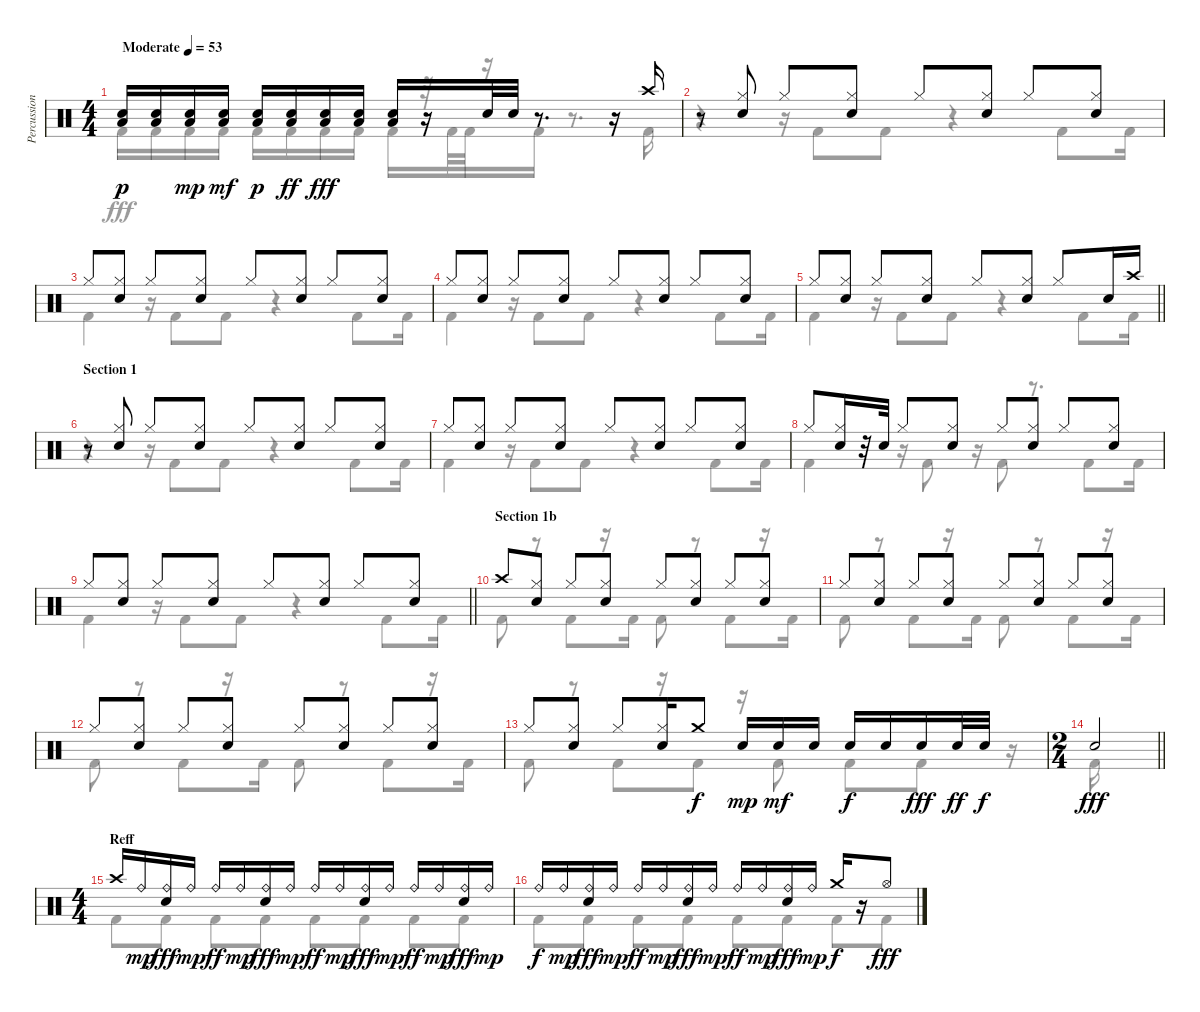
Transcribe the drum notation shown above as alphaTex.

\track ("Percussion" "Percussion") {instrument percussion}
\staff {score}
\articulation defaults
\voice
\ts (4 4)
\tempo (53 "Moderate")
\clef neutral
\ks c
("Low Floor Tom (hit)" "Electric Snare (hit)").16{bd 480 dy p} ("Low Floor Tom (hit)" "Electric Snare (hit)").16{bd 480} ("Low Floor Tom (hit)" "Electric Snare (hit)").16{bd 480 dy mp} ("Low Floor Tom (hit)" "Electric Snare (hit)").16{bd 480 dy mf} ("Low Floor Tom (hit)" "Electric Snare (hit)").16{bd 480 dy p} ("Low Floor Tom (hit)" "Electric Snare (hit)").16{bd 480 dy ff} ("Low Floor Tom (hit)" "Electric Snare (hit)").16{bd 480 dy fff} ("Low Floor Tom (hit)" "Electric Snare (hit)").16{bd 480} ("Low Floor Tom (hit)" "Electric Snare (hit)").16{bd 480} r.16 "Electric Snare (hit)".32 "Electric Snare (hit)".32 r.8{d} r.16 "Crash high (hit)".16 |
r.8 ("Hi-Hat (closed)" "Electric Snare (hit)").8 "Hi-Hat (closed)".8 ("Hi-Hat (closed)" "Electric Snare (hit)").8 "Hi-Hat (closed)".8 ("Hi-Hat (closed)" "Electric Snare (hit)").8 "Hi-Hat (closed)".8 ("Hi-Hat (closed)" "Electric Snare (hit)").8 |
"Hi-Hat (closed)".8 ("Hi-Hat (closed)" "Electric Snare (hit)").8 "Hi-Hat (closed)".8 ("Hi-Hat (closed)" "Electric Snare (hit)").8 "Hi-Hat (closed)".8 ("Hi-Hat (closed)" "Electric Snare (hit)").8 "Hi-Hat (closed)".8 ("Hi-Hat (closed)" "Electric Snare (hit)").8 |
"Hi-Hat (closed)".8 ("Hi-Hat (closed)" "Electric Snare (hit)").8 "Hi-Hat (closed)".8 ("Hi-Hat (closed)" "Electric Snare (hit)").8 "Hi-Hat (closed)".8 ("Hi-Hat (closed)" "Electric Snare (hit)").8 "Hi-Hat (closed)".8 ("Hi-Hat (closed)" "Electric Snare (hit)").8 |
\barLineRight lightlight "Hi-Hat (closed)".8
("Hi-Hat (closed)" "Electric Snare (hit)").8 "Hi-Hat (closed)".8 ("Hi-Hat (closed)" "Electric Snare (hit)").8 "Hi-Hat (closed)".8 ("Hi-Hat (closed)" "Electric Snare (hit)").8 "Hi-Hat (closed)".8 "Electric Snare (hit)".16 "Crash high (hit)".16 |
\section ("" "Section 1")
r.8 ("Hi-Hat (closed)" "Electric Snare (hit)").8 "Hi-Hat (closed)".8 ("Hi-Hat (closed)" "Electric Snare (hit)").8 "Hi-Hat (closed)".8 ("Hi-Hat (closed)" "Electric Snare (hit)").8 "Hi-Hat (closed)".8 ("Hi-Hat (closed)" "Electric Snare (hit)").8 |
"Hi-Hat (closed)".8 ("Hi-Hat (closed)" "Electric Snare (hit)").8 "Hi-Hat (closed)".8 ("Hi-Hat (closed)" "Electric Snare (hit)").8 "Hi-Hat (closed)".8 ("Hi-Hat (closed)" "Electric Snare (hit)").8 "Hi-Hat (closed)".8 ("Hi-Hat (closed)" "Electric Snare (hit)").8 |
"Hi-Hat (closed)".8 ("Hi-Hat (closed)" "Electric Snare (hit)").16 r.32 "Electric Snare (hit)".32 "Hi-Hat (closed)".8 ("Hi-Hat (closed)" "Electric Snare (hit)").8 "Hi-Hat (closed)".8 ("Hi-Hat (closed)" "Electric Snare (hit)").8 "Hi-Hat (closed)".8 ("Hi-Hat (closed)" "Electric Snare (hit)").8 |
\barLineRight lightlight "Hi-Hat (closed)".8
("Hi-Hat (closed)" "Electric Snare (hit)").8 "Hi-Hat (closed)".8 ("Hi-Hat (closed)" "Electric Snare (hit)").8 "Hi-Hat (closed)".8 ("Hi-Hat (closed)" "Electric Snare (hit)").8 "Hi-Hat (closed)".8 ("Hi-Hat (closed)" "Electric Snare (hit)").8 |
\section ("" "Section 1b")
"Crash high (hit)".8 ("Hi-Hat (closed)" "Electric Snare (hit)").8 "Hi-Hat (closed)".8 ("Hi-Hat (closed)" "Electric Snare (hit)").8 "Hi-Hat (closed)".8 ("Hi-Hat (closed)" "Electric Snare (hit)").8 "Hi-Hat (closed)".8 ("Hi-Hat (closed)" "Electric Snare (hit)").8 |
"Hi-Hat (closed)".8 ("Hi-Hat (closed)" "Electric Snare (hit)").8 "Hi-Hat (closed)".8 ("Hi-Hat (closed)" "Electric Snare (hit)").8 "Hi-Hat (closed)".8 ("Hi-Hat (closed)" "Electric Snare (hit)").8 "Hi-Hat (closed)".8 ("Hi-Hat (closed)" "Electric Snare (hit)").8 |
"Hi-Hat (closed)".8 ("Hi-Hat (closed)" "Electric Snare (hit)").8 "Hi-Hat (closed)".8 ("Hi-Hat (closed)" "Electric Snare (hit)").8 "Hi-Hat (closed)".8 ("Hi-Hat (closed)" "Electric Snare (hit)").8 "Hi-Hat (closed)".8 ("Hi-Hat (closed)" "Electric Snare (hit)").8 |
"Hi-Hat (closed)".8 ("Hi-Hat (closed)" "Electric Snare (hit)").8 "Hi-Hat (closed)".8 ("Hi-Hat (closed)" "Electric Snare (hit)").16 "Crash medium (hit)".8{dy f} "Electric Snare (hit)".16{dy mp} "Electric Snare (hit)".16{dy mf} "Electric Snare (hit)".16 "Electric Snare (hit)".16{dy f} "Electric Snare (hit)".16 "Electric Snare (hit)".16{dy fff} "Electric Snare (hit)".32{dy ff} "Electric Snare (hit)".32{dy f} |
\ts (2 4)
\barLineRight lightlight "Electric Snare (hit)".2{dy fff}
|
\ts (4 4)
\section ("" "Reff")
"Crash high (hit)".16 "Ride (bell)".16{dy mp} ("Ride (bell)" "Electric Snare (hit)").16{dy fff} "Ride (bell)".16{dy mp} "Ride (bell)".16{dy ff} "Ride (bell)".16{dy mp} ("Ride (bell)" "Electric Snare (hit)").16{dy fff} "Ride (bell)".16{dy mp} "Ride (bell)".16{dy ff} "Ride (bell)".16{dy mp} ("Ride (bell)" "Electric Snare (hit)").16{dy fff} "Ride (bell)".16{dy mp} "Ride (bell)".16{dy ff} "Ride (bell)".16{dy mp} ("Ride (bell)" "Electric Snare (hit)").16{dy fff} "Ride (bell)".16{dy mp} |
"Ride (bell)".16{dy f} "Ride (bell)".16{dy mp} ("Ride (bell)" "Electric Snare (hit)").16{dy fff} "Ride (bell)".16{dy mp} "Ride (bell)".16{dy ff} "Ride (bell)".16{dy mp} ("Ride (bell)" "Electric Snare (hit)").16{dy fff} "Ride (bell)".16{dy mp} "Ride (bell)".16{dy ff} "Ride (bell)".16{dy mp} ("Ride (bell)" "Electric Snare (hit)").16{dy fff} "Ride (bell)".16{dy mp} "Crash medium (hit)".16{dy f} r.16 "Hi-Hat (open)".8{dy fff}
\voice
\clef neutral
\ottava regular
\simile none
\ks c "Kick (hit) 2".16{dy fff} "Kick (hit) 2".16 "Kick (hit) 2".16 "Kick (hit) 2".16 "Kick (hit) 2".16 "Kick (hit) 2".16 "Kick (hit) 2".16 "Kick (hit) 2".16 "Kick (hit) 2".16
r.32 "Kick (hit) 2".64 "Kick (hit) 2".64 r.16 "Kick (hit) 2".16 r.8{d} "Kick (hit) 2".16 |
r.4 r.16 "Kick (hit) 2".8 "Kick (hit) 2".8 r.4 "Kick (hit) 2".8 "Kick (hit) 2".16 |
"Kick (hit) 2".4 r.16 "Kick (hit) 2".8 "Kick (hit) 2".8 r.4 "Kick (hit) 2".8 "Kick (hit) 2".16 |
"Kick (hit) 2".4 r.16 "Kick (hit) 2".8 "Kick (hit) 2".8 r.4 "Kick (hit) 2".8 "Kick (hit) 2".16 |
\barLineRight lightlight "Kick (hit) 2".4
r.16 "Kick (hit) 2".8 "Kick (hit) 2".8 r.4 "Kick (hit) 2".8 "Kick (hit) 2".16 |
r.4 r.16 "Kick (hit) 2".8 "Kick (hit) 2".8 r.4 "Kick (hit) 2".8 "Kick (hit) 2".16 |
"Kick (hit) 2".4 r.16 "Kick (hit) 2".8 "Kick (hit) 2".8 r.4 "Kick (hit) 2".8 "Kick (hit) 2".16 |
"Kick (hit) 2".4 r.16 "Kick (hit) 2".8 r.16 "Kick (hit) 2".8 r.8{d} "Kick (hit) 2".8 "Kick (hit) 2".16 |
\barLineRight lightlight "Kick (hit) 2".4
r.16 "Kick (hit) 2".8 "Kick (hit) 2".8 r.4 "Kick (hit) 2".8 "Kick (hit) 2".16 |
"Kick (hit) 2".8 r.8 "Kick (hit) 2".8 r.16 "Kick (hit) 2".16 "Kick (hit) 2".8 r.8 "Kick (hit) 2".8 r.16 "Kick (hit) 2".16 |
"Kick (hit) 2".8 r.8 "Kick (hit) 2".8 r.16 "Kick (hit) 2".16 "Kick (hit) 2".8 r.8 "Kick (hit) 2".8 r.16 "Kick (hit) 2".16 |
"Kick (hit) 2".8 r.8 "Kick (hit) 2".8 r.16 "Kick (hit) 2".16 "Kick (hit) 2".8 r.8 "Kick (hit) 2".8 r.16 "Kick (hit) 2".16 |
"Kick (hit) 2".8 r.8 "Kick (hit) 2".8 r.16 "Kick (hit) 2".8 r.16 "Kick (hit) 2".8 "Kick (hit) 2".8 "Kick (hit) 2".8 r.16 |
\barLineRight lightlight "Kick (hit) 2".16
|
"Kick (hit) 2".8 "Kick (hit) 2".8 "Kick (hit) 2".8 "Kick (hit) 2".8 "Kick (hit) 2".8 "Kick (hit) 2".8 "Kick (hit) 2".8 "Kick (hit) 2".8 |
"Kick (hit) 2".8 "Kick (hit) 2".8 "Kick (hit) 2".8 "Kick (hit) 2".8 "Kick (hit) 2".8 "Kick (hit) 2".8 "Kick (hit) 2".8 "Kick (hit) 2".8
